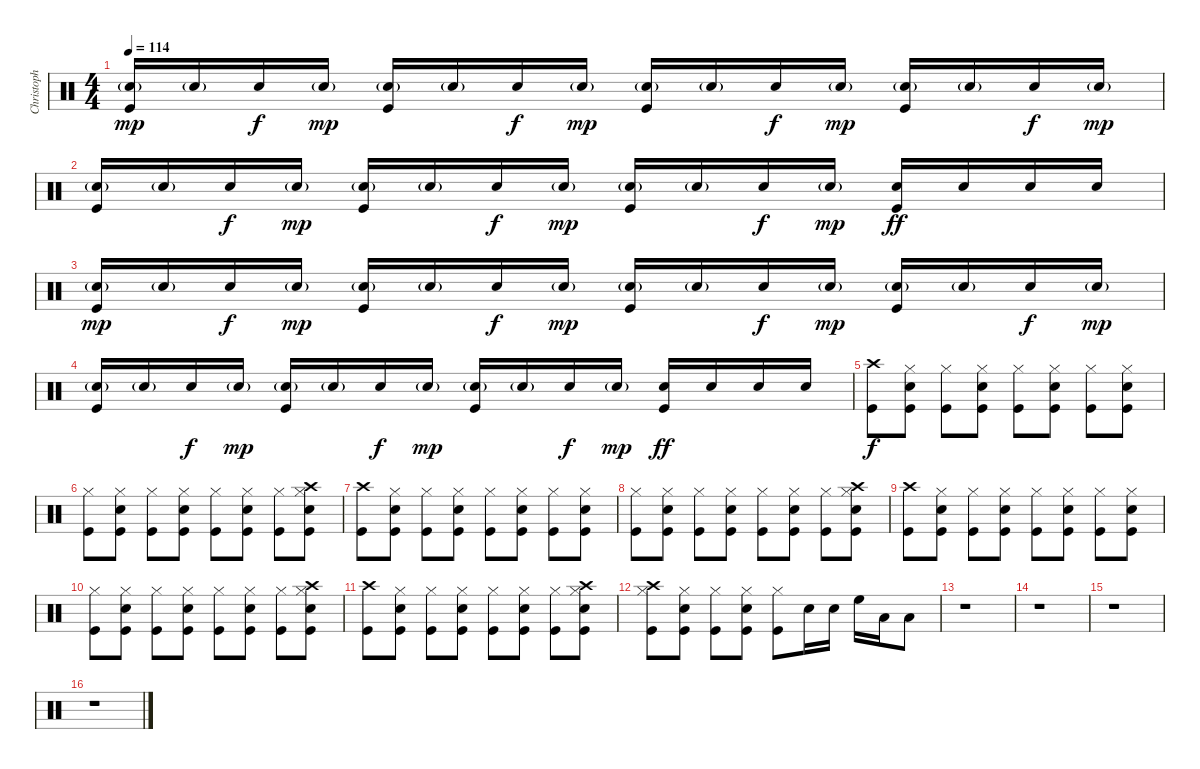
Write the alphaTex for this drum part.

\track ("Christoph - Drums" "Christoph ") {instrument percussion}
\staff {score}
\articulation defaults
\ts (4 4)
\tempo 114
\clef neutral
\ks c
("Snare (hit) 2"{g} "Kick (hit)").16{dy mp} "Snare (hit) 2"{g}.16 "Snare (hit) 2".16{dy f} "Snare (hit) 2"{g}.16{dy mp} ("Snare (hit) 2"{g} "Kick (hit)").16 "Snare (hit) 2"{g}.16 "Snare (hit) 2".16{dy f} "Snare (hit) 2"{g}.16{dy mp} ("Snare (hit) 2"{g} "Kick (hit)").16 "Snare (hit) 2"{g}.16 "Snare (hit) 2".16{dy f} "Snare (hit) 2"{g}.16{dy mp} ("Snare (hit) 2"{g} "Kick (hit)").16 "Snare (hit) 2"{g}.16 "Snare (hit) 2".16{dy f} "Snare (hit) 2"{g}.16{dy mp} |
("Snare (hit) 2"{g} "Kick (hit)").16 "Snare (hit) 2"{g}.16 "Snare (hit) 2".16{dy f} "Snare (hit) 2"{g}.16{dy mp} ("Snare (hit) 2"{g} "Kick (hit)").16 "Snare (hit) 2"{g}.16 "Snare (hit) 2".16{dy f} "Snare (hit) 2"{g}.16{dy mp} ("Snare (hit) 2"{g} "Kick (hit)").16 "Snare (hit) 2"{g}.16 "Snare (hit) 2".16{dy f} "Snare (hit) 2"{g}.16{dy mp} ("Snare (hit) 2" "Kick (hit)").16{dy ff} "Snare (hit) 2".16 "Snare (hit) 2".16 "Snare (hit) 2".16 |
("Snare (hit) 2"{g} "Kick (hit)").16{dy mp} "Snare (hit) 2"{g}.16 "Snare (hit) 2".16{dy f} "Snare (hit) 2"{g}.16{dy mp} ("Snare (hit) 2"{g} "Kick (hit)").16 "Snare (hit) 2"{g}.16 "Snare (hit) 2".16{dy f} "Snare (hit) 2"{g}.16{dy mp} ("Snare (hit) 2"{g} "Kick (hit)").16 "Snare (hit) 2"{g}.16 "Snare (hit) 2".16{dy f} "Snare (hit) 2"{g}.16{dy mp} ("Snare (hit) 2"{g} "Kick (hit)").16 "Snare (hit) 2"{g}.16 "Snare (hit) 2".16{dy f} "Snare (hit) 2"{g}.16{dy mp} |
("Snare (hit) 2"{g} "Kick (hit)").16 "Snare (hit) 2"{g}.16 "Snare (hit) 2".16{dy f} "Snare (hit) 2"{g}.16{dy mp} ("Snare (hit) 2"{g} "Kick (hit)").16 "Snare (hit) 2"{g}.16 "Snare (hit) 2".16{dy f} "Snare (hit) 2"{g}.16{dy mp} ("Snare (hit) 2"{g} "Kick (hit)").16 "Snare (hit) 2"{g}.16 "Snare (hit) 2".16{dy f} "Snare (hit) 2"{g}.16{dy mp} ("Snare (hit) 2" "Kick (hit)").16{dy ff} "Snare (hit) 2".16 "Snare (hit) 2".16 "Snare (hit) 2".16 |
("Crash high (hit)" "Kick (hit)").8{dy f} ("Hi-Hat (closed)" "Snare (hit) 2" "Kick (hit)").8 ("Hi-Hat (closed)" "Kick (hit)").8 ("Hi-Hat (closed)" "Snare (hit) 2" "Kick (hit)").8 ("Hi-Hat (closed)" "Kick (hit)").8 ("Hi-Hat (closed)" "Snare (hit) 2" "Kick (hit)").8 ("Hi-Hat (closed)" "Kick (hit)").8 ("Hi-Hat (closed)" "Snare (hit) 2" "Kick (hit)").8 |
("Hi-Hat (closed)" "Kick (hit)").8 ("Hi-Hat (closed)" "Snare (hit) 2" "Kick (hit)").8 ("Hi-Hat (closed)" "Kick (hit)").8 ("Hi-Hat (closed)" "Snare (hit) 2" "Kick (hit)").8 ("Hi-Hat (closed)" "Kick (hit)").8 ("Hi-Hat (closed)" "Snare (hit) 2" "Kick (hit)").8 ("Hi-Hat (closed)" "Kick (hit)").8 ("Crash high (hit)" "Hi-Hat (closed)" "Snare (hit) 2" "Kick (hit)").8 |
("Crash high (hit)" "Kick (hit)").8 ("Hi-Hat (closed)" "Snare (hit) 2" "Kick (hit)").8 ("Hi-Hat (closed)" "Kick (hit)").8 ("Hi-Hat (closed)" "Snare (hit) 2" "Kick (hit)").8 ("Hi-Hat (closed)" "Kick (hit)").8 ("Hi-Hat (closed)" "Snare (hit) 2" "Kick (hit)").8 ("Hi-Hat (closed)" "Kick (hit)").8 ("Hi-Hat (closed)" "Snare (hit) 2" "Kick (hit)").8 |
("Hi-Hat (closed)" "Kick (hit)").8 ("Hi-Hat (closed)" "Snare (hit) 2" "Kick (hit)").8 ("Hi-Hat (closed)" "Kick (hit)").8 ("Hi-Hat (closed)" "Snare (hit) 2" "Kick (hit)").8 ("Hi-Hat (closed)" "Kick (hit)").8 ("Hi-Hat (closed)" "Snare (hit) 2" "Kick (hit)").8 ("Hi-Hat (closed)" "Kick (hit)").8 ("Crash high (hit)" "Hi-Hat (closed)" "Snare (hit) 2" "Kick (hit)").8 |
("Crash high (hit)" "Kick (hit)").8 ("Hi-Hat (closed)" "Snare (hit) 2" "Kick (hit)").8 ("Hi-Hat (closed)" "Kick (hit)").8 ("Hi-Hat (closed)" "Snare (hit) 2" "Kick (hit)").8 ("Hi-Hat (closed)" "Kick (hit)").8 ("Hi-Hat (closed)" "Snare (hit) 2" "Kick (hit)").8 ("Hi-Hat (closed)" "Kick (hit)").8 ("Hi-Hat (closed)" "Snare (hit) 2" "Kick (hit)").8 |
("Hi-Hat (closed)" "Kick (hit)").8 ("Hi-Hat (closed)" "Snare (hit) 2" "Kick (hit)").8 ("Hi-Hat (closed)" "Kick (hit)").8 ("Hi-Hat (closed)" "Snare (hit) 2" "Kick (hit)").8 ("Hi-Hat (closed)" "Kick (hit)").8 ("Hi-Hat (closed)" "Snare (hit) 2" "Kick (hit)").8 ("Hi-Hat (closed)" "Kick (hit)").8 ("Crash high (hit)" "Hi-Hat (closed)" "Snare (hit) 2" "Kick (hit)").8 |
("Crash high (hit)" "Kick (hit)").8 ("Hi-Hat (closed)" "Snare (hit) 2" "Kick (hit)").8 ("Hi-Hat (closed)" "Kick (hit)").8 ("Hi-Hat (closed)" "Snare (hit) 2" "Kick (hit)").8 ("Hi-Hat (closed)" "Kick (hit)").8 ("Hi-Hat (closed)" "Snare (hit) 2" "Kick (hit)").8 ("Hi-Hat (closed)" "Kick (hit)").8 ("Crash high (hit)" "Hi-Hat (closed)" "Snare (hit) 2" "Kick (hit)").8 |
("Crash high (hit)" "Hi-Hat (closed)" "Kick (hit)").8 ("Hi-Hat (closed)" "Snare (hit) 2" "Kick (hit)").8 ("Hi-Hat (closed)" "Kick (hit)").8 ("Hi-Hat (closed)" "Snare (hit) 2" "Kick (hit)").8 ("Hi-Hat (closed)" "Kick (hit)").8 "Snare (hit) 2".16 "Snare (hit) 2".16 "High Floor Tom (hit)".16 "Low Tom (hit)".16 "Low Tom (hit)".8 |
r.1 |
r.1 |
r.1 |
r.1
